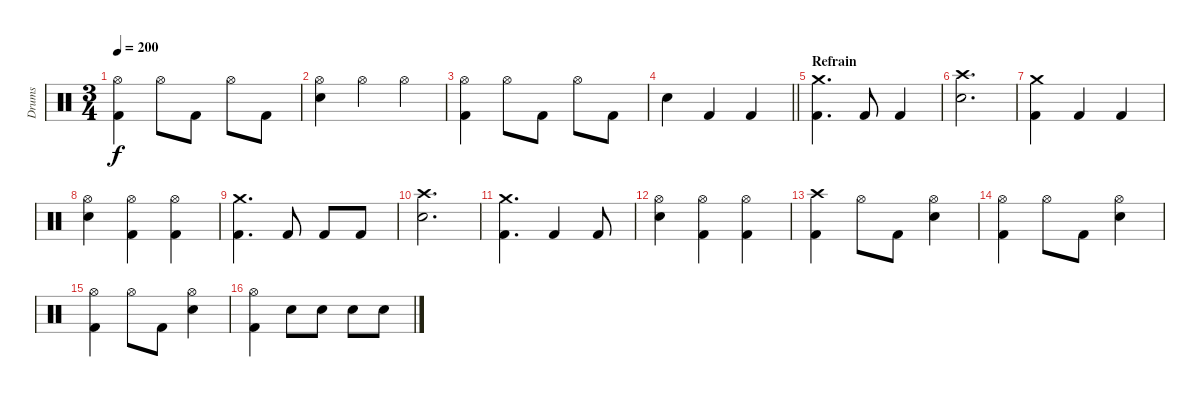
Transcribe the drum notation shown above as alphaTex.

\track ("Drums" "Drums") {instrument percussion}
\staff {score}
\articulation defaults
\ts (3 4)
\tempo 200
\clef neutral
\ks c
("Hi-Hat (open)" "Kick (hit) 2").4{dy f} "Hi-Hat (open)".8 "Kick (hit) 2".8 "Hi-Hat (open)".8 "Kick (hit) 2".8 |
("Hi-Hat (open)" "Electric Snare (hit)").4 "Hi-Hat (open)".4 "Hi-Hat (open)".4 |
("Hi-Hat (open)" "Kick (hit) 2").4 "Hi-Hat (open)".8 "Kick (hit) 2".8 "Hi-Hat (open)".8 "Kick (hit) 2".8 |
\barLineRight lightlight "Electric Snare (hit)".4 "Kick (hit) 2".4 "Kick (hit) 2".4
|
\section ("" "Refrain")
("Crash medium (hit)" "Kick (hit) 2").4{d} "Kick (hit) 2".8 "Kick (hit) 2".4 |
("Crash high (hit)" "Electric Snare (hit)").2{d} |
("Crash medium (hit)" "Kick (hit) 2").4 "Kick (hit) 2".4 "Kick (hit) 2".4 |
("Hi-Hat (open)" "Electric Snare (hit)").4 ("Hi-Hat (open)" "Kick (hit) 2").4 ("Hi-Hat (open)" "Kick (hit) 2").4 |
("Crash medium (hit)" "Kick (hit) 2").4{d} "Kick (hit) 2".8 "Kick (hit) 2".8 "Kick (hit) 2".8 |
("Crash high (hit)" "Electric Snare (hit)").2{d} |
("Crash medium (hit)" "Kick (hit) 2").4{d} "Kick (hit) 2".4 "Kick (hit) 2".8 |
("Hi-Hat (open)" "Electric Snare (hit)").4 ("Hi-Hat (open)" "Kick (hit) 2").4 ("Hi-Hat (open)" "Kick (hit) 2").4 |
("Crash high (hit)" "Kick (hit) 2").4 "Hi-Hat (open)".8 "Kick (hit) 2".8 ("Hi-Hat (open)" "Electric Snare (hit)").4 |
("Hi-Hat (open)" "Kick (hit) 2").4 "Hi-Hat (open)".8 "Kick (hit) 2".8 ("Hi-Hat (open)" "Electric Snare (hit)").4 |
("Hi-Hat (open)" "Kick (hit) 2").4 "Hi-Hat (open)".8 "Kick (hit) 2".8 ("Hi-Hat (open)" "Electric Snare (hit)").4 |
("Hi-Hat (open)" "Kick (hit) 2").4 "Electric Snare (hit)".8 "Electric Snare (hit)".8 "Snare (hit) 2".8 "Snare (hit) 2".8
